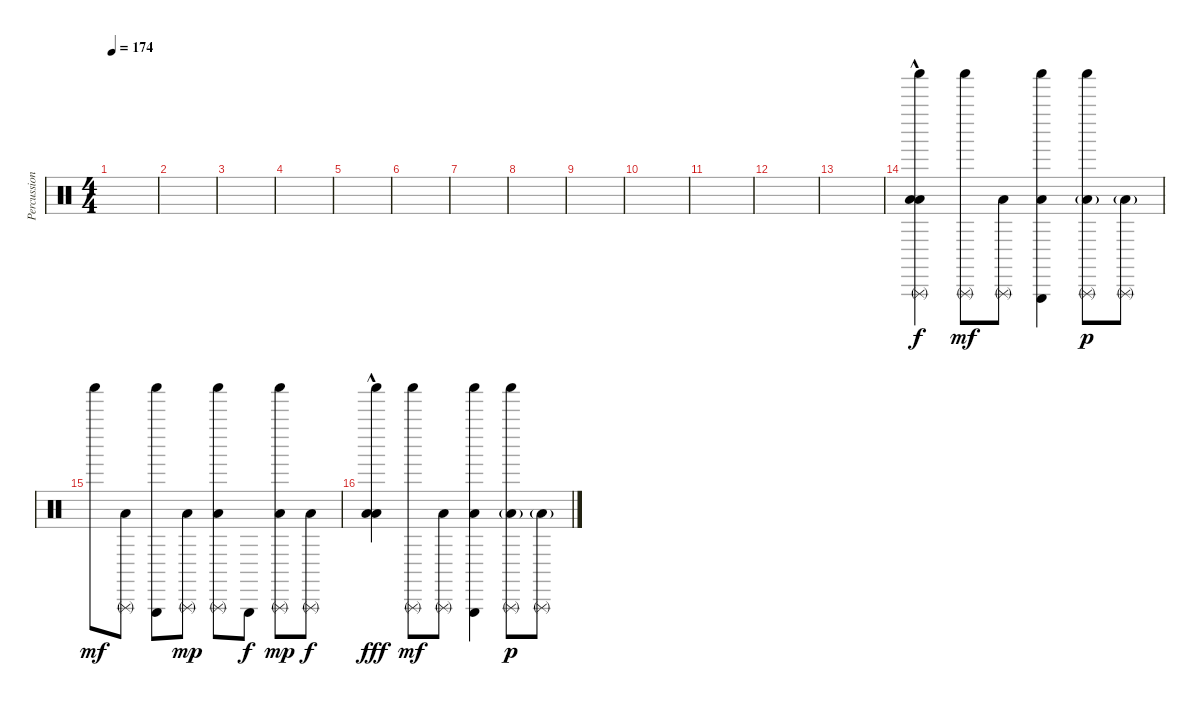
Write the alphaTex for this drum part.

\track ("Percussion" "Percussion") {instrument percussion}
\staff {score}
\articulation defaults
\ts (4 4)
\tempo 174
\clef neutral
\ks c
|
|
|
|
|
|
|
|
|
|
|
|
|
("Shaker (hit)" "Triangle (rnute)" "Low Tom (hit)"{hac} "Low Floor Tom (hit)"{hac}).4 ("Shaker (hit)" "Triangle (rnute)").8{dy mf} ("Triangle (rnute)" "Low Floor Tom (hit)").8 ("Shaker (hit)" "Triangle (hit)" "Low Floor Tom (hit)").4 ("Shaker (hit)" "Triangle (rnute)" "Low Floor Tom (hit)"{g}).8{dy p} ("Triangle (rnute)" "Low Floor Tom (hit)"{g}).8 |
"Shaker (hit)".8{dy mf} ("Triangle (rnute)" "Low Floor Tom (hit)").8 ("Shaker (hit)" "Triangle (hit)").8 ("Triangle (rnute)" "Low Floor Tom (hit)").8{dy mp} ("Shaker (hit)" "Triangle (rnute)" "Low Floor Tom (hit)").8 "Triangle (hit)".8{dy f} ("Shaker (hit)" "Triangle (rnute)" "Low Tom (hit)").8{dy mp} ("Triangle (rnute)" "Low Tom (hit)").8{dy f} |
("Shaker (hit)" "Low Tom (hit)"{hac} "Low Floor Tom (hit)"{hac}).4{dy fff} ("Shaker (hit)" "Triangle (rnute)").8{dy mf} ("Triangle (rnute)" "Low Floor Tom (hit)").8 ("Shaker (hit)" "Triangle (hit)" "Low Floor Tom (hit)").4 ("Shaker (hit)" "Triangle (rnute)" "Low Floor Tom (hit)"{g}).8{dy p} ("Triangle (rnute)" "Low Floor Tom (hit)"{g}).8
